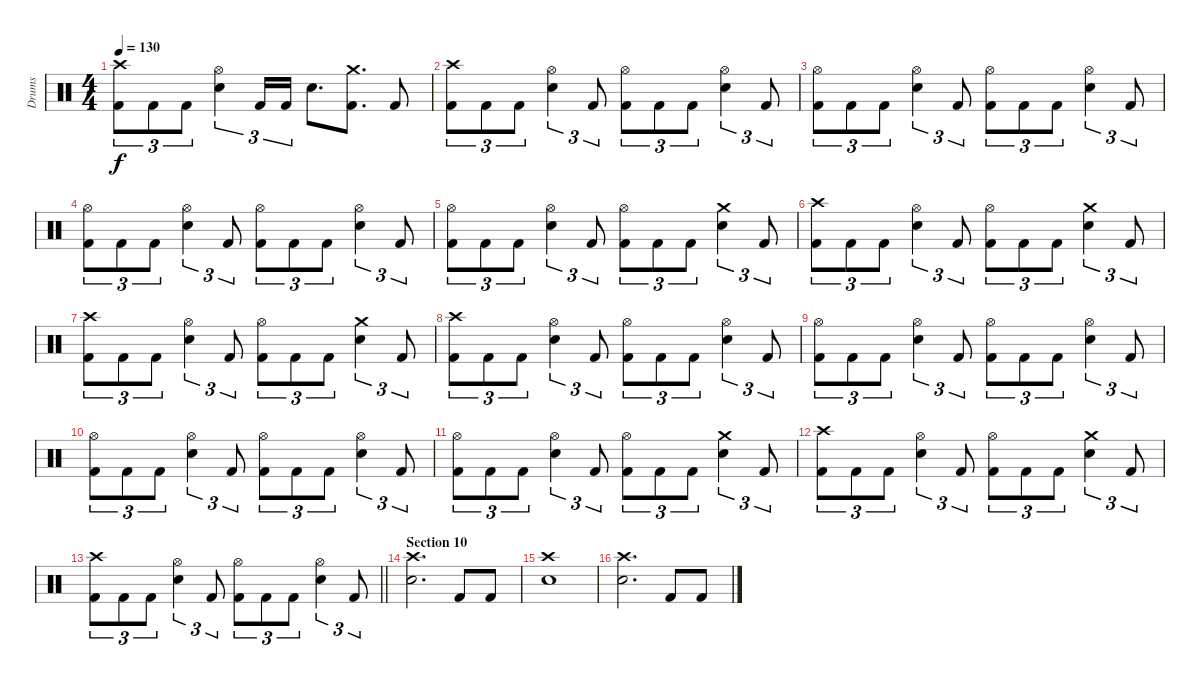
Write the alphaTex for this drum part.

\track ("Drums" "Drums") {instrument percussion}
\staff {score}
\articulation defaults
\ts (4 4)
\tempo 130
\clef neutral
\ks c
("Crash high (hit)" "Kick (hit) 2").8{tu (3 2) dy f} "Kick (hit) 2".8{tu (3 2)} "Kick (hit) 2".8{tu (3 2)} ("Hi-Hat (open)" "Electric Snare (hit)").4{tu (3 2)} "Kick (hit) 2".16{tu (3 2)} "Kick (hit) 2".16{tu (3 2)} "Electric Snare (hit)".8{d} ("Crash medium (hit)" "Kick (hit) 2").8{d} "Kick (hit) 2".8 |
("Crash high (hit)" "Kick (hit) 2").8{tu (3 2)} "Kick (hit) 2".8{tu (3 2)} "Kick (hit) 2".8{tu (3 2)} ("Hi-Hat (open)" "Electric Snare (hit)").4{tu (3 2)} "Kick (hit) 2".8{tu (3 2)} ("Hi-Hat (open)" "Kick (hit) 2").8{tu (3 2)} "Kick (hit) 2".8{tu (3 2)} "Kick (hit) 2".8{tu (3 2)} ("Hi-Hat (open)" "Electric Snare (hit)").4{tu (3 2)} "Kick (hit) 2".8{tu (3 2)} |
("Hi-Hat (open)" "Kick (hit) 2").8{tu (3 2)} "Kick (hit) 2".8{tu (3 2)} "Kick (hit) 2".8{tu (3 2)} ("Hi-Hat (open)" "Electric Snare (hit)").4{tu (3 2)} "Kick (hit) 2".8{tu (3 2)} ("Hi-Hat (open)" "Kick (hit) 2").8{tu (3 2)} "Kick (hit) 2".8{tu (3 2)} "Kick (hit) 2".8{tu (3 2)} ("Hi-Hat (open)" "Electric Snare (hit)").4{tu (3 2)} "Kick (hit) 2".8{tu (3 2)} |
("Hi-Hat (open)" "Kick (hit) 2").8{tu (3 2)} "Kick (hit) 2".8{tu (3 2)} "Kick (hit) 2".8{tu (3 2)} ("Hi-Hat (open)" "Electric Snare (hit)").4{tu (3 2)} "Kick (hit) 2".8{tu (3 2)} ("Hi-Hat (open)" "Kick (hit) 2").8{tu (3 2)} "Kick (hit) 2".8{tu (3 2)} "Kick (hit) 2".8{tu (3 2)} ("Hi-Hat (open)" "Electric Snare (hit)").4{tu (3 2)} "Kick (hit) 2".8{tu (3 2)} |
("Hi-Hat (open)" "Kick (hit) 2").8{tu (3 2)} "Kick (hit) 2".8{tu (3 2)} "Kick (hit) 2".8{tu (3 2)} ("Hi-Hat (open)" "Electric Snare (hit)").4{tu (3 2)} "Kick (hit) 2".8{tu (3 2)} ("Hi-Hat (open)" "Kick (hit) 2").8{tu (3 2)} "Kick (hit) 2".8{tu (3 2)} "Kick (hit) 2".8{tu (3 2)} ("Crash medium (hit)" "Electric Snare (hit)").4{tu (3 2)} "Kick (hit) 2".8{tu (3 2)} |
("Crash high (hit)" "Kick (hit) 2").8{tu (3 2)} "Kick (hit) 2".8{tu (3 2)} "Kick (hit) 2".8{tu (3 2)} ("Hi-Hat (open)" "Electric Snare (hit)").4{tu (3 2)} "Kick (hit) 2".8{tu (3 2)} ("Hi-Hat (open)" "Kick (hit) 2").8{tu (3 2)} "Kick (hit) 2".8{tu (3 2)} "Kick (hit) 2".8{tu (3 2)} ("Crash medium (hit)" "Electric Snare (hit)").4{tu (3 2)} "Kick (hit) 2".8{tu (3 2)} |
("Crash high (hit)" "Kick (hit) 2").8{tu (3 2)} "Kick (hit) 2".8{tu (3 2)} "Kick (hit) 2".8{tu (3 2)} ("Hi-Hat (open)" "Electric Snare (hit)").4{tu (3 2)} "Kick (hit) 2".8{tu (3 2)} ("Hi-Hat (open)" "Kick (hit) 2").8{tu (3 2)} "Kick (hit) 2".8{tu (3 2)} "Kick (hit) 2".8{tu (3 2)} ("Crash medium (hit)" "Electric Snare (hit)").4{tu (3 2)} "Kick (hit) 2".8{tu (3 2)} |
("Crash high (hit)" "Kick (hit) 2").8{tu (3 2)} "Kick (hit) 2".8{tu (3 2)} "Kick (hit) 2".8{tu (3 2)} ("Hi-Hat (open)" "Electric Snare (hit)").4{tu (3 2)} "Kick (hit) 2".8{tu (3 2)} ("Hi-Hat (open)" "Kick (hit) 2").8{tu (3 2)} "Kick (hit) 2".8{tu (3 2)} "Kick (hit) 2".8{tu (3 2)} ("Hi-Hat (open)" "Electric Snare (hit)").4{tu (3 2)} "Kick (hit) 2".8{tu (3 2)} |
("Hi-Hat (open)" "Kick (hit) 2").8{tu (3 2)} "Kick (hit) 2".8{tu (3 2)} "Kick (hit) 2".8{tu (3 2)} ("Hi-Hat (open)" "Electric Snare (hit)").4{tu (3 2)} "Kick (hit) 2".8{tu (3 2)} ("Hi-Hat (open)" "Kick (hit) 2").8{tu (3 2)} "Kick (hit) 2".8{tu (3 2)} "Kick (hit) 2".8{tu (3 2)} ("Hi-Hat (open)" "Electric Snare (hit)").4{tu (3 2)} "Kick (hit) 2".8{tu (3 2)} |
("Hi-Hat (open)" "Kick (hit) 2").8{tu (3 2)} "Kick (hit) 2".8{tu (3 2)} "Kick (hit) 2".8{tu (3 2)} ("Hi-Hat (open)" "Electric Snare (hit)").4{tu (3 2)} "Kick (hit) 2".8{tu (3 2)} ("Hi-Hat (open)" "Kick (hit) 2").8{tu (3 2)} "Kick (hit) 2".8{tu (3 2)} "Kick (hit) 2".8{tu (3 2)} ("Hi-Hat (open)" "Electric Snare (hit)").4{tu (3 2)} "Kick (hit) 2".8{tu (3 2)} |
("Hi-Hat (open)" "Kick (hit) 2").8{tu (3 2)} "Kick (hit) 2".8{tu (3 2)} "Kick (hit) 2".8{tu (3 2)} ("Hi-Hat (open)" "Electric Snare (hit)").4{tu (3 2)} "Kick (hit) 2".8{tu (3 2)} ("Hi-Hat (open)" "Kick (hit) 2").8{tu (3 2)} "Kick (hit) 2".8{tu (3 2)} "Kick (hit) 2".8{tu (3 2)} ("Crash medium (hit)" "Electric Snare (hit)").4{tu (3 2)} "Kick (hit) 2".8{tu (3 2)} |
("Crash high (hit)" "Kick (hit) 2").8{tu (3 2)} "Kick (hit) 2".8{tu (3 2)} "Kick (hit) 2".8{tu (3 2)} ("Hi-Hat (open)" "Electric Snare (hit)").4{tu (3 2)} "Kick (hit) 2".8{tu (3 2)} ("Hi-Hat (open)" "Kick (hit) 2").8{tu (3 2)} "Kick (hit) 2".8{tu (3 2)} "Kick (hit) 2".8{tu (3 2)} ("Crash medium (hit)" "Electric Snare (hit)").4{tu (3 2)} "Kick (hit) 2".8{tu (3 2)} |
\barLineRight lightlight
("Crash high (hit)" "Kick (hit) 2").8{tu (3 2)} "Kick (hit) 2".8{tu (3 2)} "Kick (hit) 2".8{tu (3 2)} ("Hi-Hat (open)" "Electric Snare (hit)").4{tu (3 2)} "Kick (hit) 2".8{tu (3 2)} ("Hi-Hat (open)" "Kick (hit) 2").8{tu (3 2)} "Kick (hit) 2".8{tu (3 2)} "Kick (hit) 2".8{tu (3 2)} ("Hi-Hat (open)" "Electric Snare (hit)").4{tu (3 2)} "Kick (hit) 2".8{tu (3 2)} |
\section ("" "Section 10")
("Crash high (hit)" "Electric Snare (hit)").2{d} "Kick (hit) 2".8 "Kick (hit) 2".8 |
("Crash high (hit)" "Electric Snare (hit)").1 |
("Crash high (hit)" "Electric Snare (hit)").2{d} "Kick (hit) 2".8 "Kick (hit) 2".8
